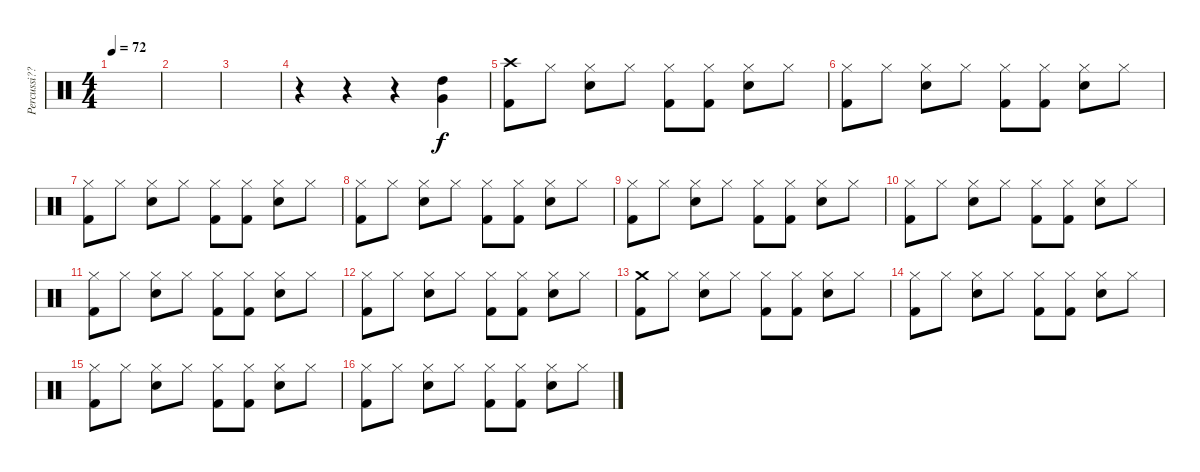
\track ("Percussi??TEdit" "Percussi??") {instrument percussion}
\staff {score}
\articulation defaults
\ts (4 4)
\tempo 72
\clef neutral
\ks c
|
|
|
r.4 r.4 r.4 ("High Tom (hit)" "Very Low Tom (hit)").4 |
("Crash high (hit)" "Kick (hit) 2").8 "Hi-Hat (closed)".8 ("Hi-Hat (closed)" "Electric Snare (hit)").8 "Hi-Hat (closed)".8 ("Hi-Hat (closed)" "Kick (hit) 2").8 ("Hi-Hat (closed)" "Kick (hit) 2").8 ("Hi-Hat (closed)" "Electric Snare (hit)").8 "Hi-Hat (closed)".8 |
("Hi-Hat (closed)" "Kick (hit) 2").8 "Hi-Hat (closed)".8 ("Hi-Hat (closed)" "Electric Snare (hit)").8 "Hi-Hat (closed)".8 ("Hi-Hat (closed)" "Kick (hit) 2").8 ("Hi-Hat (closed)" "Kick (hit) 2").8 ("Hi-Hat (closed)" "Electric Snare (hit)").8 "Hi-Hat (closed)".8 |
("Hi-Hat (closed)" "Kick (hit) 2").8 "Hi-Hat (closed)".8 ("Hi-Hat (closed)" "Electric Snare (hit)").8 "Hi-Hat (closed)".8 ("Hi-Hat (closed)" "Kick (hit) 2").8 ("Hi-Hat (closed)" "Kick (hit) 2").8 ("Hi-Hat (closed)" "Electric Snare (hit)").8 "Hi-Hat (closed)".8 |
("Hi-Hat (closed)" "Kick (hit) 2").8 "Hi-Hat (closed)".8 ("Hi-Hat (closed)" "Electric Snare (hit)").8 "Hi-Hat (closed)".8 ("Hi-Hat (closed)" "Kick (hit) 2").8 ("Hi-Hat (closed)" "Kick (hit) 2").8 ("Hi-Hat (closed)" "Electric Snare (hit)").8 "Hi-Hat (closed)".8 |
("Hi-Hat (closed)" "Kick (hit) 2").8 "Hi-Hat (closed)".8 ("Hi-Hat (closed)" "Electric Snare (hit)").8 "Hi-Hat (closed)".8 ("Hi-Hat (closed)" "Kick (hit) 2").8 ("Hi-Hat (closed)" "Kick (hit) 2").8 ("Hi-Hat (closed)" "Electric Snare (hit)").8 "Hi-Hat (closed)".8 |
("Hi-Hat (closed)" "Kick (hit) 2").8 "Hi-Hat (closed)".8 ("Hi-Hat (closed)" "Electric Snare (hit)").8 "Hi-Hat (closed)".8 ("Hi-Hat (closed)" "Kick (hit) 2").8 ("Hi-Hat (closed)" "Kick (hit) 2").8 ("Hi-Hat (closed)" "Electric Snare (hit)").8 "Hi-Hat (closed)".8 |
("Hi-Hat (closed)" "Kick (hit) 2").8 "Hi-Hat (closed)".8 ("Hi-Hat (closed)" "Electric Snare (hit)").8 "Hi-Hat (closed)".8 ("Hi-Hat (closed)" "Kick (hit) 2").8 ("Hi-Hat (closed)" "Kick (hit) 2").8 ("Hi-Hat (closed)" "Electric Snare (hit)").8 "Hi-Hat (closed)".8 |
("Hi-Hat (closed)" "Kick (hit) 2").8 "Hi-Hat (closed)".8 ("Hi-Hat (closed)" "Electric Snare (hit)").8 "Hi-Hat (closed)".8 ("Hi-Hat (closed)" "Kick (hit) 2").8 ("Hi-Hat (closed)" "Kick (hit) 2").8 ("Hi-Hat (closed)" "Electric Snare (hit)").8 "Hi-Hat (closed)".8 |
("Crash medium (hit)" "Kick (hit) 2").8 "Hi-Hat (closed)".8 ("Hi-Hat (closed)" "Electric Snare (hit)").8 "Hi-Hat (closed)".8 ("Hi-Hat (closed)" "Kick (hit) 2").8 ("Hi-Hat (closed)" "Kick (hit) 2").8 ("Hi-Hat (closed)" "Electric Snare (hit)").8 "Hi-Hat (closed)".8 |
("Hi-Hat (closed)" "Kick (hit) 2").8 "Hi-Hat (closed)".8 ("Hi-Hat (closed)" "Electric Snare (hit)").8 "Hi-Hat (closed)".8 ("Hi-Hat (closed)" "Kick (hit) 2").8 ("Hi-Hat (closed)" "Kick (hit) 2").8 ("Hi-Hat (closed)" "Electric Snare (hit)").8 "Hi-Hat (closed)".8 |
("Hi-Hat (closed)" "Kick (hit) 2").8 "Hi-Hat (closed)".8 ("Hi-Hat (closed)" "Electric Snare (hit)").8 "Hi-Hat (closed)".8 ("Hi-Hat (closed)" "Kick (hit) 2").8 ("Hi-Hat (closed)" "Kick (hit) 2").8 ("Hi-Hat (closed)" "Electric Snare (hit)").8 "Hi-Hat (closed)".8 |
("Hi-Hat (closed)" "Kick (hit) 2").8 "Hi-Hat (closed)".8 ("Hi-Hat (closed)" "Electric Snare (hit)").8 "Hi-Hat (closed)".8 ("Hi-Hat (closed)" "Kick (hit) 2").8 ("Hi-Hat (closed)" "Kick (hit) 2").8 ("Hi-Hat (closed)" "Electric Snare (hit)").8 "Hi-Hat (closed)".8
